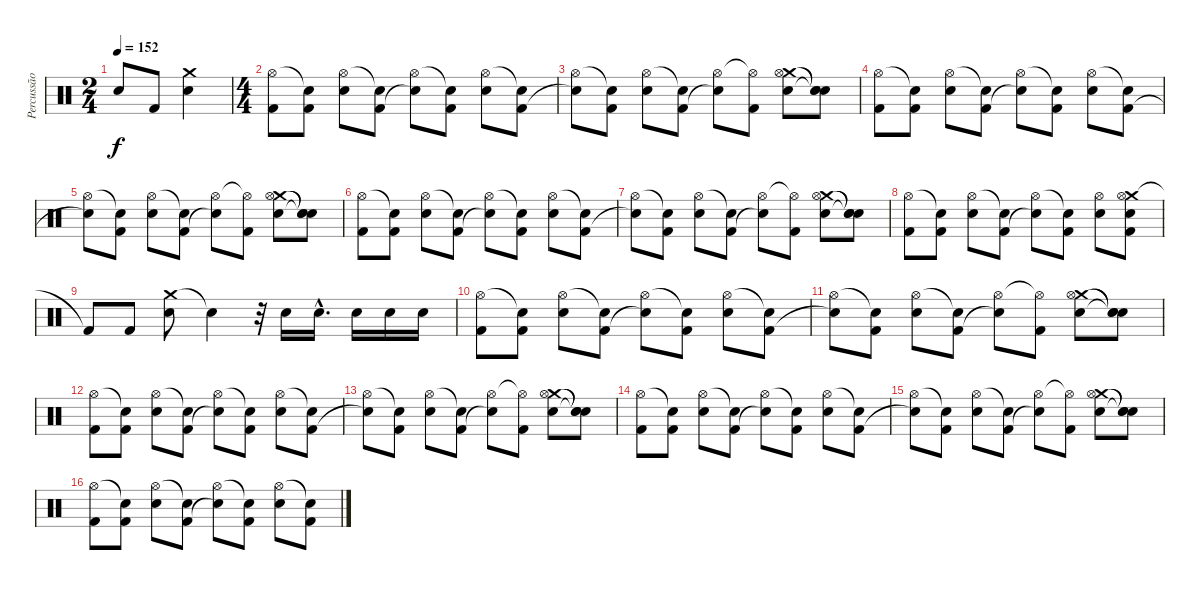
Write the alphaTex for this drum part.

\track ("Percussão" "Percussão") {instrument percussion}
\staff {score}
\articulation defaults
\ts (2 4)
\tempo 152
\clef neutral
\ks c "Snare (hit)"{t}.8{dy f} "Kick (hit) 2".8
("Crash medium (hit)" "Snare (hit) 2").4 |
\ts (4 4)
("Hi-Hat (open)" "Kick (hit) 2").8 ("Snare (hit)"{t} "Kick (hit) 2").8 ("Hi-Hat (open)" "Snare (hit) 2").8 ("Snare (hit)"{t} "Kick (hit) 2").8 ("Hi-Hat (open)" "Snare (hit)"{t}).8 ("Snare (hit)"{t} "Kick (hit) 2").8 ("Hi-Hat (open)" "Snare (hit) 2").8 ("Snare (hit)"{t} "Kick (hit) 2").8 |
("Hi-Hat (open)" "Snare (hit)"{t}).8 ("Snare (hit)"{t} "Kick (hit) 2").8 ("Hi-Hat (open)" "Snare (hit) 2").8 ("Snare (hit)"{t} "Kick (hit) 2").8 ("Hi-Hat (open)" "Snare (hit)"{t}).8 ("Hi-Hat (open)"{t} "Kick (hit) 2").8 ("Crash medium (hit)" "Snare (hit) 2" "Hi-Hat (open)").8 ("Snare (hit)"{t} "Snare (hit)"{t} "Snare (hit)"{t}).8 |
("Hi-Hat (open)" "Kick (hit) 2").8 ("Snare (hit)"{t} "Kick (hit) 2").8 ("Hi-Hat (open)" "Snare (hit) 2").8 ("Snare (hit)"{t} "Kick (hit) 2").8 ("Hi-Hat (open)" "Snare (hit)"{t}).8 ("Snare (hit)"{t} "Kick (hit) 2").8 ("Hi-Hat (open)" "Snare (hit) 2").8 ("Snare (hit)"{t} "Kick (hit) 2").8 |
("Hi-Hat (open)" "Snare (hit)"{t}).8 ("Snare (hit)"{t} "Kick (hit) 2").8 ("Hi-Hat (open)" "Snare (hit) 2").8 ("Snare (hit)"{t} "Kick (hit) 2").8 ("Hi-Hat (open)" "Snare (hit)"{t}).8 ("Hi-Hat (open)"{t} "Kick (hit) 2").8 ("Crash medium (hit)" "Snare (hit) 2" "Hi-Hat (open)").8 ("Snare (hit)"{t} "Snare (hit)"{t} "Snare (hit)"{t}).8 |
("Hi-Hat (open)" "Kick (hit) 2").8 ("Snare (hit)"{t} "Kick (hit) 2").8 ("Hi-Hat (open)" "Snare (hit) 2").8 ("Snare (hit)"{t} "Kick (hit) 2").8 ("Hi-Hat (open)" "Snare (hit)"{t}).8 ("Snare (hit)"{t} "Kick (hit) 2").8 ("Hi-Hat (open)" "Snare (hit) 2").8 ("Snare (hit)"{t} "Kick (hit) 2").8 |
("Hi-Hat (open)" "Snare (hit)"{t}).8 ("Snare (hit)"{t} "Kick (hit) 2").8 ("Hi-Hat (open)" "Snare (hit) 2").8 ("Snare (hit)"{t} "Kick (hit) 2").8 ("Hi-Hat (open)" "Snare (hit)"{t}).8 ("Hi-Hat (open)"{t} "Kick (hit) 2").8 ("Crash medium (hit)" "Snare (hit) 2" "Hi-Hat (open)").8 ("Snare (hit)"{t} "Snare (hit)"{t} "Snare (hit)"{t}).8 |
("Hi-Hat (open)" "Kick (hit) 2").8 ("Snare (hit)"{t} "Kick (hit) 2").8 ("Hi-Hat (open)" "Snare (hit) 2").8 ("Snare (hit)"{t} "Kick (hit) 2").8 ("Hi-Hat (open)" "Snare (hit)"{t}).8 ("Snare (hit)"{t} "Kick (hit) 2").8 ("Hi-Hat (open)" "Snare (hit) 2").8 ("Crash medium (hit)" "Hi-Hat (open)" "Snare (hit) 2" "Kick (hit) 2").8 |
"Kick (hit) 2"{t}.8 "Kick (hit) 2".8 ("Crash medium (hit)" "Snare (hit) 2").8 "Snare (hit)"{t}.4 r.32 "Snare (hit) 2".16 "Snare (hit) 2"{hac}.16{d} "Snare (hit) 2".16 "Snare (hit) 2".16 "Snare (hit) 2".16 |
("Hi-Hat (open)" "Kick (hit) 2").8 ("Snare (hit)"{t} "Kick (hit) 2").8 ("Hi-Hat (open)" "Snare (hit) 2").8 ("Snare (hit)"{t} "Kick (hit) 2").8 ("Hi-Hat (open)" "Snare (hit)"{t}).8 ("Snare (hit)"{t} "Kick (hit) 2").8 ("Hi-Hat (open)" "Snare (hit) 2").8 ("Snare (hit)"{t} "Kick (hit) 2").8 |
("Hi-Hat (open)" "Snare (hit)"{t}).8 ("Snare (hit)"{t} "Kick (hit) 2").8 ("Hi-Hat (open)" "Snare (hit) 2").8 ("Snare (hit)"{t} "Kick (hit) 2").8 ("Hi-Hat (open)" "Snare (hit)"{t}).8 ("Hi-Hat (open)"{t} "Kick (hit) 2").8 ("Crash medium (hit)" "Snare (hit) 2" "Hi-Hat (open)").8 ("Snare (hit)"{t} "Snare (hit)"{t} "Snare (hit)"{t}).8 |
("Hi-Hat (open)" "Kick (hit) 2").8 ("Snare (hit)"{t} "Kick (hit) 2").8 ("Hi-Hat (open)" "Snare (hit) 2").8 ("Snare (hit)"{t} "Kick (hit) 2").8 ("Hi-Hat (open)" "Snare (hit)"{t}).8 ("Snare (hit)"{t} "Kick (hit) 2").8 ("Hi-Hat (open)" "Snare (hit) 2").8 ("Snare (hit)"{t} "Kick (hit) 2").8 |
("Hi-Hat (open)" "Snare (hit)"{t}).8 ("Snare (hit)"{t} "Kick (hit) 2").8 ("Hi-Hat (open)" "Snare (hit) 2").8 ("Snare (hit)"{t} "Kick (hit) 2").8 ("Hi-Hat (open)" "Snare (hit)"{t}).8 ("Hi-Hat (open)"{t} "Kick (hit) 2").8 ("Crash medium (hit)" "Snare (hit) 2" "Hi-Hat (open)").8 ("Snare (hit)"{t} "Snare (hit)"{t} "Snare (hit)"{t}).8 |
("Hi-Hat (open)" "Kick (hit) 2").8 ("Snare (hit)"{t} "Kick (hit) 2").8 ("Hi-Hat (open)" "Snare (hit) 2").8 ("Snare (hit)"{t} "Kick (hit) 2").8 ("Hi-Hat (open)" "Snare (hit)"{t}).8 ("Snare (hit)"{t} "Kick (hit) 2").8 ("Hi-Hat (open)" "Snare (hit) 2").8 ("Snare (hit)"{t} "Kick (hit) 2").8 |
("Hi-Hat (open)" "Snare (hit)"{t}).8 ("Snare (hit)"{t} "Kick (hit) 2").8 ("Hi-Hat (open)" "Snare (hit) 2").8 ("Snare (hit)"{t} "Kick (hit) 2").8 ("Hi-Hat (open)" "Snare (hit)"{t}).8 ("Hi-Hat (open)"{t} "Kick (hit) 2").8 ("Crash medium (hit)" "Snare (hit) 2" "Hi-Hat (open)").8 ("Snare (hit)"{t} "Snare (hit)"{t} "Snare (hit)"{t}).8 |
("Hi-Hat (open)" "Kick (hit) 2").8 ("Snare (hit)"{t} "Kick (hit) 2").8 ("Hi-Hat (open)" "Snare (hit) 2").8 ("Snare (hit)"{t} "Kick (hit) 2").8 ("Hi-Hat (open)" "Snare (hit)"{t}).8 ("Snare (hit)"{t} "Kick (hit) 2").8 ("Hi-Hat (open)" "Snare (hit) 2").8 ("Snare (hit)"{t} "Kick (hit) 2").8
